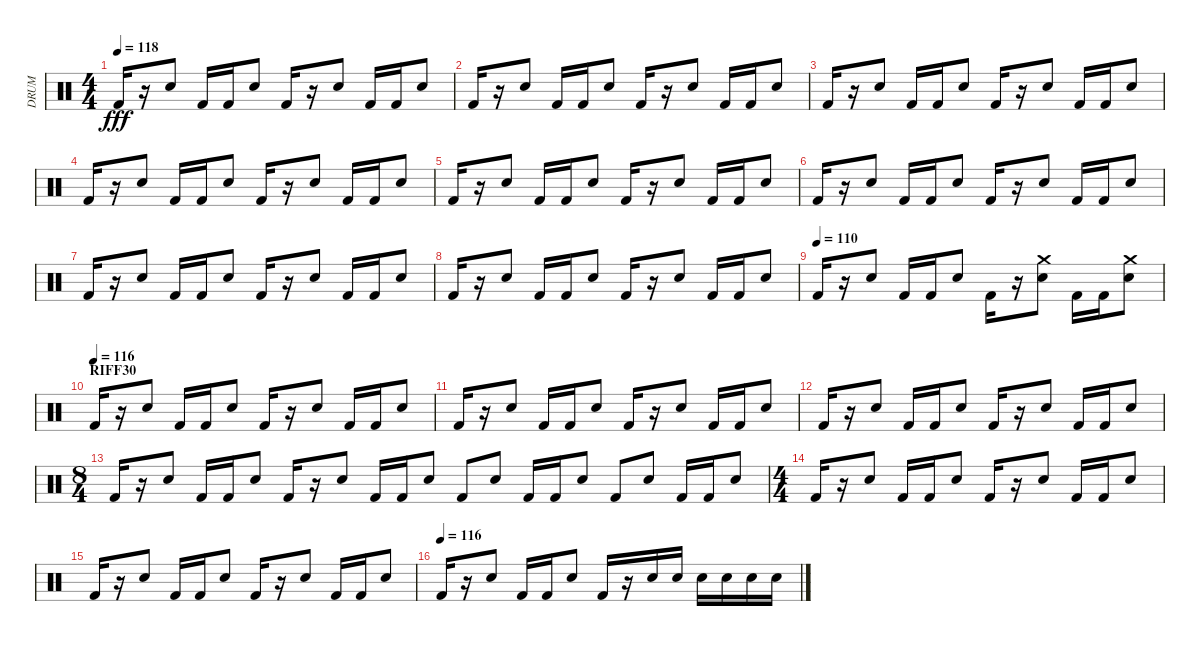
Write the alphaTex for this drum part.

\track ("DRUM" "DRUM") {instrument percussion}
\staff {score}
\articulation defaults
\ts (4 4)
\tempo 118
\clef neutral
\ks c "Kick (hit) 2".16{dy fff}
r.16 "Electric Snare (hit)".8 "Kick (hit) 2".16 "Kick (hit) 2".16 "Electric Snare (hit)".8 "Kick (hit) 2".16 r.16 "Electric Snare (hit)".8 "Kick (hit) 2".16 "Kick (hit) 2".16 "Electric Snare (hit)".8 |
"Kick (hit) 2".16 r.16 "Electric Snare (hit)".8 "Kick (hit) 2".16 "Kick (hit) 2".16 "Electric Snare (hit)".8 "Kick (hit) 2".16 r.16 "Electric Snare (hit)".8 "Kick (hit) 2".16 "Kick (hit) 2".16 "Electric Snare (hit)".8 |
"Kick (hit) 2".16 r.16 "Electric Snare (hit)".8 "Kick (hit) 2".16 "Kick (hit) 2".16 "Electric Snare (hit)".8 "Kick (hit) 2".16 r.16 "Electric Snare (hit)".8 "Kick (hit) 2".16 "Kick (hit) 2".16 "Electric Snare (hit)".8 |
"Kick (hit) 2".16 r.16 "Electric Snare (hit)".8 "Kick (hit) 2".16 "Kick (hit) 2".16 "Electric Snare (hit)".8 "Kick (hit) 2".16 r.16 "Electric Snare (hit)".8 "Kick (hit) 2".16 "Kick (hit) 2".16 "Electric Snare (hit)".8 |
"Kick (hit) 2".16 r.16 "Electric Snare (hit)".8 "Kick (hit) 2".16 "Kick (hit) 2".16 "Electric Snare (hit)".8 "Kick (hit) 2".16 r.16 "Electric Snare (hit)".8 "Kick (hit) 2".16 "Kick (hit) 2".16 "Electric Snare (hit)".8 |
"Kick (hit) 2".16 r.16 "Electric Snare (hit)".8 "Kick (hit) 2".16 "Kick (hit) 2".16 "Electric Snare (hit)".8 "Kick (hit) 2".16 r.16 "Electric Snare (hit)".8 "Kick (hit) 2".16 "Kick (hit) 2".16 "Electric Snare (hit)".8 |
"Kick (hit) 2".16 r.16 "Electric Snare (hit)".8 "Kick (hit) 2".16 "Kick (hit) 2".16 "Electric Snare (hit)".8 "Kick (hit) 2".16 r.16 "Electric Snare (hit)".8 "Kick (hit) 2".16 "Kick (hit) 2".16 "Electric Snare (hit)".8 |
"Kick (hit) 2".16 r.16 "Electric Snare (hit)".8 "Kick (hit) 2".16 "Kick (hit) 2".16 "Electric Snare (hit)".8 "Kick (hit) 2".16 r.16 "Electric Snare (hit)".8 "Kick (hit) 2".16 "Kick (hit) 2".16 "Electric Snare (hit)".8 |
\tempo (110)
"Kick (hit) 2".16 r.16 "Electric Snare (hit)".8 "Kick (hit) 2".16 "Kick (hit) 2".16 "Electric Snare (hit)".8 "Kick (hit) 2".16 r.16 ("Electric Snare (hit)" "Crash medium (hit)").8 "Kick (hit) 2".16 "Kick (hit) 2".16 ("Electric Snare (hit)" "Crash medium (hit)").8 |
\section ("" "RIFF30")
\tempo (116)
"Kick (hit) 2".16 r.16 "Electric Snare (hit)".8 "Kick (hit) 2".16 "Kick (hit) 2".16 "Electric Snare (hit)".8 "Kick (hit) 2".16 r.16 "Electric Snare (hit)".8 "Kick (hit) 2".16 "Kick (hit) 2".16 "Electric Snare (hit)".8 |
"Kick (hit) 2".16 r.16 "Electric Snare (hit)".8 "Kick (hit) 2".16 "Kick (hit) 2".16 "Electric Snare (hit)".8 "Kick (hit) 2".16 r.16 "Electric Snare (hit)".8 "Kick (hit) 2".16 "Kick (hit) 2".16 "Electric Snare (hit)".8 |
"Kick (hit) 2".16 r.16 "Electric Snare (hit)".8 "Kick (hit) 2".16 "Kick (hit) 2".16 "Electric Snare (hit)".8 "Kick (hit) 2".16 r.16 "Electric Snare (hit)".8 "Kick (hit) 2".16 "Kick (hit) 2".16 "Electric Snare (hit)".8 |
\ts (8 4)
"Kick (hit) 2".16 r.16 "Electric Snare (hit)".8 "Kick (hit) 2".16 "Kick (hit) 2".16 "Electric Snare (hit)".8 "Kick (hit) 2".16 r.16 "Electric Snare (hit)".8 "Kick (hit) 2".16 "Kick (hit) 2".16 "Electric Snare (hit)".8 "Kick (hit) 2".8 "Electric Snare (hit)".8 "Kick (hit) 2".16 "Kick (hit) 2".16 "Electric Snare (hit)".8 "Kick (hit) 2".8 "Electric Snare (hit)".8 "Kick (hit) 2".16 "Kick (hit) 2".16 "Electric Snare (hit)".8 |
\ts (4 4)
"Kick (hit) 2".16 r.16 "Electric Snare (hit)".8 "Kick (hit) 2".16 "Kick (hit) 2".16 "Electric Snare (hit)".8 "Kick (hit) 2".16 r.16 "Electric Snare (hit)".8 "Kick (hit) 2".16 "Kick (hit) 2".16 "Electric Snare (hit)".8 |
"Kick (hit) 2".16 r.16 "Electric Snare (hit)".8 "Kick (hit) 2".16 "Kick (hit) 2".16 "Electric Snare (hit)".8 "Kick (hit) 2".16 r.16 "Electric Snare (hit)".8 "Kick (hit) 2".16 "Kick (hit) 2".16 "Electric Snare (hit)".8 |
\tempo (116)
"Kick (hit) 2".16 r.16 "Electric Snare (hit)".8 "Kick (hit) 2".16 "Kick (hit) 2".16 "Electric Snare (hit)".8 "Kick (hit) 2".16 r.16 "Electric Snare (hit)".16 "Electric Snare (hit)".16 "Electric Snare (hit)".16 "Electric Snare (hit)".16 "Electric Snare (hit)".16 "Electric Snare (hit)".16
